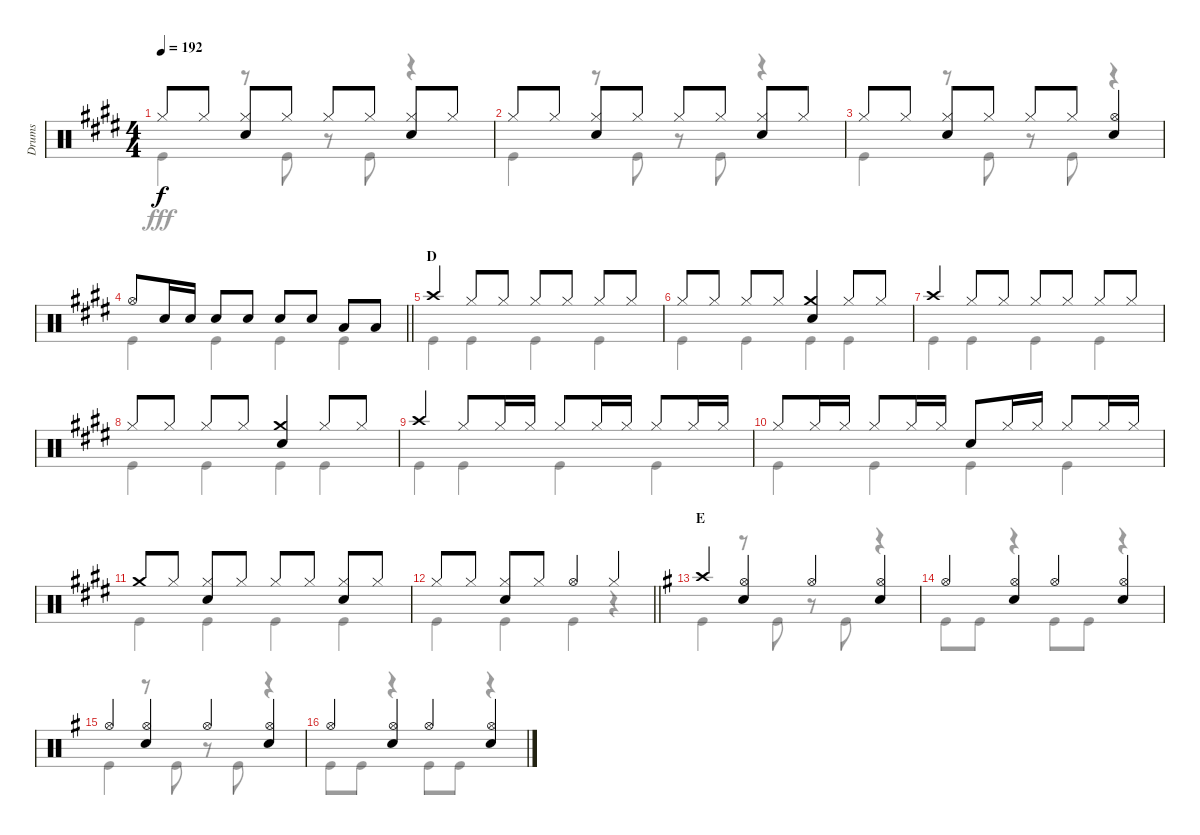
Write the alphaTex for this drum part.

\track ("Drums" "Drums") {instrument percussion}
\staff {score}
\articulation defaults
\voice
\ts (4 4)
\tempo 192
\clef neutral
\ks e "Hi-Hat (closed)".8{dy f} "Hi-Hat (closed)".8
("Hi-Hat (closed)" "Snare (hit) 2").8 "Hi-Hat (closed)".8 "Hi-Hat (closed)".8 "Hi-Hat (closed)".8 ("Hi-Hat (closed)" "Snare (hit) 2").8 "Hi-Hat (closed)".8 |
"Hi-Hat (closed)".8 "Hi-Hat (closed)".8 ("Hi-Hat (closed)" "Snare (hit) 2").8 "Hi-Hat (closed)".8 "Hi-Hat (closed)".8 "Hi-Hat (closed)".8 ("Hi-Hat (closed)" "Snare (hit) 2").8 "Hi-Hat (closed)".8 |
"Hi-Hat (closed)".8 "Hi-Hat (closed)".8 ("Hi-Hat (closed)" "Snare (hit) 2").8 "Hi-Hat (closed)".8 "Hi-Hat (closed)".8 "Hi-Hat (closed)".8 ("Hi-Hat (open)" "Snare (hit) 2").4 |
\barLineRight lightlight "Hi-Hat (open)".8 "Snare (hit) 2".16 "Snare (hit) 2".16 "Snare (hit) 2".8 "Snare (hit) 2".8 "Snare (hit) 2".8 "Snare (hit) 2".8 "Low Tom (hit)".8 "Low Tom (hit)".8
|
\section ("" "D")
"Crash high (hit)".4 "Hi-Hat (closed)".8 "Hi-Hat (closed)".8 "Hi-Hat (closed)".8 "Hi-Hat (closed)".8 "Hi-Hat (closed)".8 "Hi-Hat (closed)".8 |
"Hi-Hat (closed)".8 "Hi-Hat (closed)".8 "Hi-Hat (closed)".8 "Hi-Hat (closed)".8 ("Crash medium (hit)" "Snare (hit) 2").4 "Hi-Hat (closed)".8 "Hi-Hat (closed)".8 |
"Crash high (hit)".4 "Hi-Hat (closed)".8 "Hi-Hat (closed)".8 "Hi-Hat (closed)".8 "Hi-Hat (closed)".8 "Hi-Hat (closed)".8 "Hi-Hat (closed)".8 |
"Hi-Hat (closed)".8 "Hi-Hat (closed)".8 "Hi-Hat (closed)".8 "Hi-Hat (closed)".8 ("Crash medium (hit)" "Snare (hit) 2").4 "Hi-Hat (closed)".8 "Hi-Hat (closed)".8 |
"Crash high (hit)".4 "Hi-Hat (closed)".8 "Hi-Hat (closed)".16 "Hi-Hat (closed)".16 "Hi-Hat (closed)".8 "Hi-Hat (closed)".16 "Hi-Hat (closed)".16 "Hi-Hat (closed)".8 "Hi-Hat (closed)".16 "Hi-Hat (closed)".16 |
"Hi-Hat (closed)".8 "Hi-Hat (closed)".16 "Hi-Hat (closed)".16 "Hi-Hat (closed)".8 "Hi-Hat (closed)".16 "Hi-Hat (closed)".16 "Snare (hit) 2".8 "Hi-Hat (closed)".16 "Hi-Hat (closed)".16 "Hi-Hat (closed)".8 "Hi-Hat (closed)".16 "Hi-Hat (closed)".16 |
"Crash medium (hit)".8 "Hi-Hat (closed)".8 ("Hi-Hat (closed)" "Snare (hit) 2").8 "Hi-Hat (closed)".8 "Hi-Hat (closed)".8 "Hi-Hat (closed)".8 ("Hi-Hat (closed)" "Snare (hit) 2").8 "Hi-Hat (closed)".8 |
\barLineRight lightlight "Hi-Hat (closed)".8 "Hi-Hat (closed)".8
("Hi-Hat (closed)" "Snare (hit) 2").8 "Hi-Hat (closed)".8 "Hi-Hat (open)".4 "Hi-Hat (closed)".4 |
\section ("" "E")
\ks g "Crash high (hit)".4
("Hi-Hat (open)" "Snare (hit) 2").4 "Hi-Hat (open)".4 ("Hi-Hat (open)" "Snare (hit) 2").4 |
"Hi-Hat (open)".4 ("Hi-Hat (open)" "Snare (hit) 2").4 "Hi-Hat (open)".4 ("Hi-Hat (open)" "Snare (hit) 2").4 |
"Hi-Hat (open)".4 ("Hi-Hat (open)" "Snare (hit) 2").4 "Hi-Hat (open)".4 ("Hi-Hat (open)" "Snare (hit) 2").4 |
"Hi-Hat (open)".4 ("Hi-Hat (open)" "Snare (hit) 2").4 "Hi-Hat (open)".4 ("Hi-Hat (open)" "Snare (hit) 2").4
\voice
\clef neutral
\ottava regular
\simile none
\ks e "Kick (hit)".4{dy fff}
r.8 "Kick (hit)".8 r.8 "Kick (hit)".8 r.4 |
"Kick (hit)".4 r.8 "Kick (hit)".8 r.8 "Kick (hit)".8 r.4 |
"Kick (hit)".4 r.8 "Kick (hit)".8 r.8 "Kick (hit)".8 r.4 |
\barLineRight lightlight "Kick (hit)".4 "Kick (hit)".4 "Kick (hit)".4 "Kick (hit)".4
|
"Kick (hit)".4 "Kick (hit)".4 "Kick (hit)".4 "Kick (hit)".4 |
"Kick (hit)".4 "Kick (hit)".4 "Kick (hit)".4 "Kick (hit)".4 |
"Kick (hit)".4 "Kick (hit)".4 "Kick (hit)".4 "Kick (hit)".4 |
"Kick (hit)".4 "Kick (hit)".4 "Kick (hit)".4 "Kick (hit)".4 |
"Kick (hit)".4 "Kick (hit)".4 "Kick (hit)".4 "Kick (hit)".4 |
"Kick (hit)".4 "Kick (hit)".4 "Kick (hit)".4 "Kick (hit)".4 |
"Kick (hit)".4 "Kick (hit)".4 "Kick (hit)".4 "Kick (hit)".4 |
\barLineRight lightlight "Kick (hit)".4 "Kick (hit)".4 "Kick (hit)".4
r.4 |
\ks g "Kick (hit)".4
r.8 "Kick (hit)".8 r.8 "Kick (hit)".8 r.4 |
"Kick (hit)".8 "Kick (hit)".8 r.4 "Kick (hit)".8 "Kick (hit)".8 r.4 |
"Kick (hit)".4 r.8 "Kick (hit)".8 r.8 "Kick (hit)".8 r.4 |
"Kick (hit)".8 "Kick (hit)".8 r.4 "Kick (hit)".8 "Kick (hit)".8 r.4
